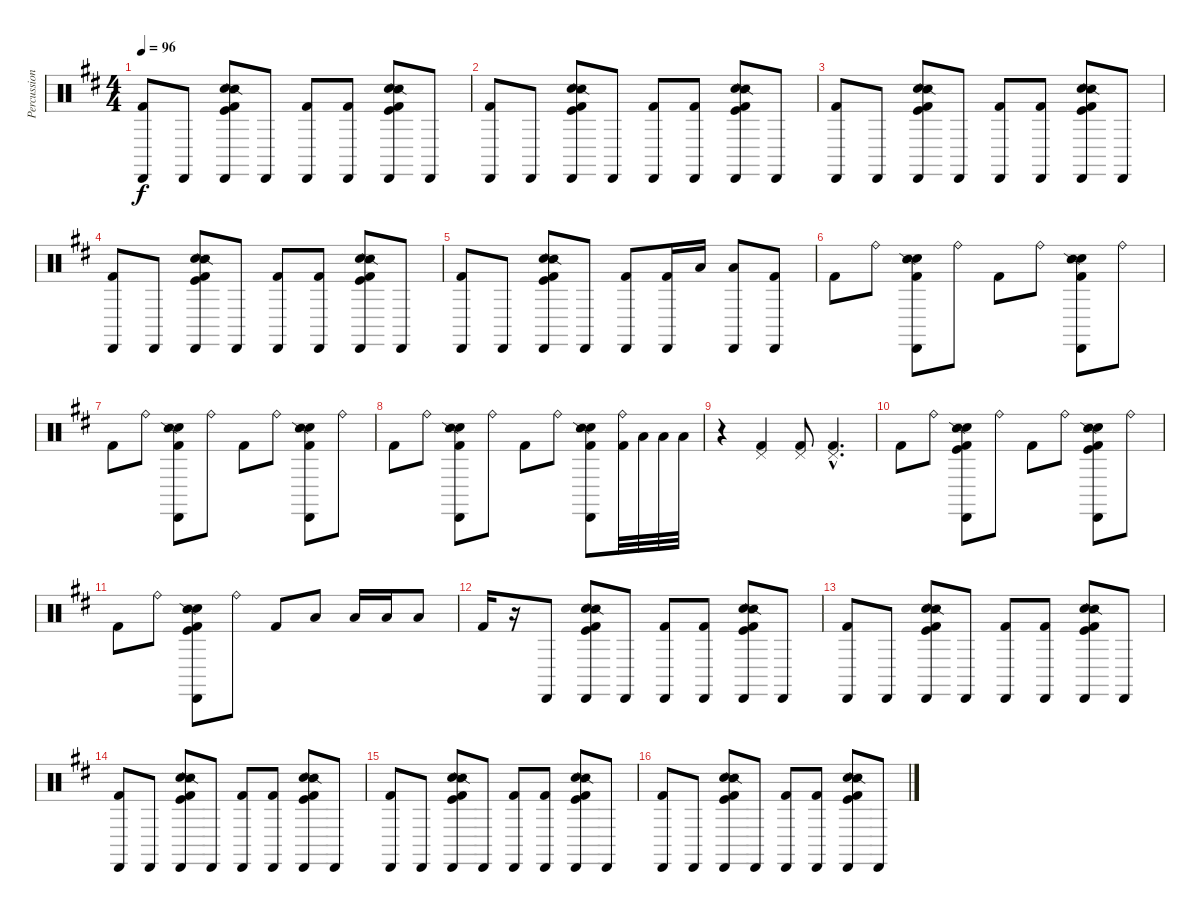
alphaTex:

\track ("Percussion" "Percussion") {instrument percussion}
\staff {score}
\articulation defaults
\ts (4 4)
\tempo 96
\clef neutral
\ks bminor
("Kick (hit) 2" "Cabasa (hit)").8{dy f} "Cabasa (hit)".8 ("Hand Clap (hit)" "Snare (side stick) 2" "Kick (hit) 2" "Kick (hit)" "Cabasa (hit)").8 "Cabasa (hit)".8 ("Kick (hit) 2" "Cabasa (hit)").8 ("Kick (hit) 2" "Cabasa (hit)").8 ("Hand Clap (hit)" "Snare (side stick) 2" "Kick (hit) 2" "Kick (hit)" "Cabasa (hit)").8 "Cabasa (hit)".8 |
("Kick (hit) 2" "Cabasa (hit)").8 "Cabasa (hit)".8 ("Hand Clap (hit)" "Snare (side stick) 2" "Kick (hit) 2" "Kick (hit)" "Cabasa (hit)").8 "Cabasa (hit)".8 ("Kick (hit) 2" "Cabasa (hit)").8 ("Kick (hit) 2" "Cabasa (hit)").8 ("Hand Clap (hit)" "Snare (side stick) 2" "Kick (hit) 2" "Kick (hit)" "Cabasa (hit)").8 "Cabasa (hit)".8 |
("Kick (hit) 2" "Cabasa (hit)").8 "Cabasa (hit)".8 ("Hand Clap (hit)" "Snare (side stick) 2" "Kick (hit) 2" "Kick (hit)" "Cabasa (hit)").8 "Cabasa (hit)".8 ("Kick (hit) 2" "Cabasa (hit)").8 ("Kick (hit) 2" "Cabasa (hit)").8 ("Hand Clap (hit)" "Snare (side stick) 2" "Kick (hit) 2" "Kick (hit)" "Cabasa (hit)").8 "Cabasa (hit)".8 |
("Kick (hit) 2" "Cabasa (hit)").8 "Cabasa (hit)".8 ("Hand Clap (hit)" "Snare (side stick) 2" "Kick (hit) 2" "Kick (hit)" "Cabasa (hit)").8 "Cabasa (hit)".8 ("Kick (hit) 2" "Cabasa (hit)").8 ("Kick (hit) 2" "Cabasa (hit)").8 ("Hand Clap (hit)" "Snare (side stick) 2" "Kick (hit) 2" "Kick (hit)" "Cabasa (hit)").8 "Cabasa (hit)".8 |
("Kick (hit) 2" "Cabasa (hit)").8 "Cabasa (hit)".8 ("Hand Clap (hit)" "Snare (side stick) 2" "Kick (hit) 2" "Kick (hit)" "Cabasa (hit)").8 "Cabasa (hit)".8 ("Kick (hit) 2" "Cabasa (hit)").8 ("Kick (hit) 2" "Cabasa (hit)").16 "Low Floor Tom (hit)".16 ("Low Floor Tom (hit)" "Cabasa (hit)").8 ("Kick (hit) 2" "Cabasa (hit)").8 |
"Kick (hit) 2".8 "Ride (bell)".8 ("Hand Clap (hit)" "Snare (side stick) 2" "Kick (hit) 2" "Cabasa (hit)").8 "Ride (bell)".8 "Kick (hit) 2".8 "Ride (bell)".8 ("Hand Clap (hit)" "Snare (side stick) 2" "Kick (hit) 2" "Cabasa (hit)").8 "Ride (bell)".8 |
"Kick (hit) 2".8 "Ride (bell)".8 ("Hand Clap (hit)" "Snare (side stick) 2" "Kick (hit) 2" "Cabasa (hit)").8 "Ride (bell)".8 "Kick (hit) 2".8 "Ride (bell)".8 ("Hand Clap (hit)" "Snare (side stick) 2" "Kick (hit) 2" "Cabasa (hit)").8 "Ride (bell)".8 |
"Kick (hit) 2".8 "Ride (bell)".8 ("Hand Clap (hit)" "Snare (side stick) 2" "Kick (hit) 2" "Cabasa (hit)").8 "Ride (bell)".8 "Kick (hit) 2".8 "Ride (bell)".8 ("Hand Clap (hit)" "Snare (side stick) 2" "Kick (hit) 2" "Cabasa (hit)").8 ("Ride (bell)" "Kick (hit) 2").32 "Low Floor Tom (hit)".32 "Low Floor Tom (hit)".32 "Low Floor Tom (hit)".32 |
r.4 ("Kick (hit) 2" "Pedal Hi-Hat (hit)").4 ("Kick (hit) 2" "Pedal Hi-Hat (hit)").8 ("Kick (hit) 2"{hac} "Pedal Hi-Hat (hit)"{hac}).4{d} |
"Kick (hit) 2".8 "Ride (bell)".8 ("Hand Clap (hit)" "Snare (side stick) 2" "Kick (hit) 2" "Kick (hit)" "Cabasa (hit)").8 "Ride (bell)".8 "Kick (hit) 2".8 "Ride (bell)".8 ("Hand Clap (hit)" "Snare (side stick) 2" "Kick (hit) 2" "Kick (hit)" "Cabasa (hit)").8 "Ride (bell)".8 |
"Kick (hit) 2".8 "Ride (bell)".8 ("Hand Clap (hit)" "Snare (side stick) 2" "Kick (hit) 2" "Kick (hit)" "Cabasa (hit)").8 "Ride (bell)".8 "Kick (hit) 2".8 "Low Floor Tom (hit)".8 "Low Floor Tom (hit)".16 "Low Floor Tom (hit)".16 "Low Floor Tom (hit)".8 |
"Kick (hit) 2".16 r.16 "Cabasa (hit)".8 ("Hand Clap (hit)" "Snare (side stick) 2" "Kick (hit) 2" "Kick (hit)" "Cabasa (hit)").8 "Cabasa (hit)".8 ("Kick (hit) 2" "Cabasa (hit)").8 ("Kick (hit) 2" "Cabasa (hit)").8 ("Hand Clap (hit)" "Snare (side stick) 2" "Kick (hit) 2" "Kick (hit)" "Cabasa (hit)").8 "Cabasa (hit)".8 |
("Kick (hit) 2" "Cabasa (hit)").8 "Cabasa (hit)".8 ("Hand Clap (hit)" "Snare (side stick) 2" "Kick (hit) 2" "Kick (hit)" "Cabasa (hit)").8 "Cabasa (hit)".8 ("Kick (hit) 2" "Cabasa (hit)").8 ("Kick (hit) 2" "Cabasa (hit)").8 ("Hand Clap (hit)" "Snare (side stick) 2" "Kick (hit) 2" "Kick (hit)" "Cabasa (hit)").8 "Cabasa (hit)".8 |
("Kick (hit) 2" "Cabasa (hit)").8 "Cabasa (hit)".8 ("Hand Clap (hit)" "Snare (side stick) 2" "Kick (hit) 2" "Kick (hit)" "Cabasa (hit)").8 "Cabasa (hit)".8 ("Kick (hit) 2" "Cabasa (hit)").8 ("Kick (hit) 2" "Cabasa (hit)").8 ("Hand Clap (hit)" "Snare (side stick) 2" "Kick (hit) 2" "Kick (hit)" "Cabasa (hit)").8 "Cabasa (hit)".8 |
("Kick (hit) 2" "Cabasa (hit)").8 "Cabasa (hit)".8 ("Hand Clap (hit)" "Snare (side stick) 2" "Kick (hit) 2" "Kick (hit)" "Cabasa (hit)").8 "Cabasa (hit)".8 ("Kick (hit) 2" "Cabasa (hit)").8 ("Kick (hit) 2" "Cabasa (hit)").8 ("Hand Clap (hit)" "Snare (side stick) 2" "Kick (hit) 2" "Kick (hit)" "Cabasa (hit)").8 "Cabasa (hit)".8 |
("Kick (hit) 2" "Cabasa (hit)").8 "Cabasa (hit)".8 ("Hand Clap (hit)" "Snare (side stick) 2" "Kick (hit) 2" "Kick (hit)" "Cabasa (hit)").8 "Cabasa (hit)".8 ("Kick (hit) 2" "Cabasa (hit)").8 ("Kick (hit) 2" "Cabasa (hit)").8 ("Hand Clap (hit)" "Snare (side stick) 2" "Kick (hit) 2" "Kick (hit)" "Cabasa (hit)").8 "Cabasa (hit)".8
